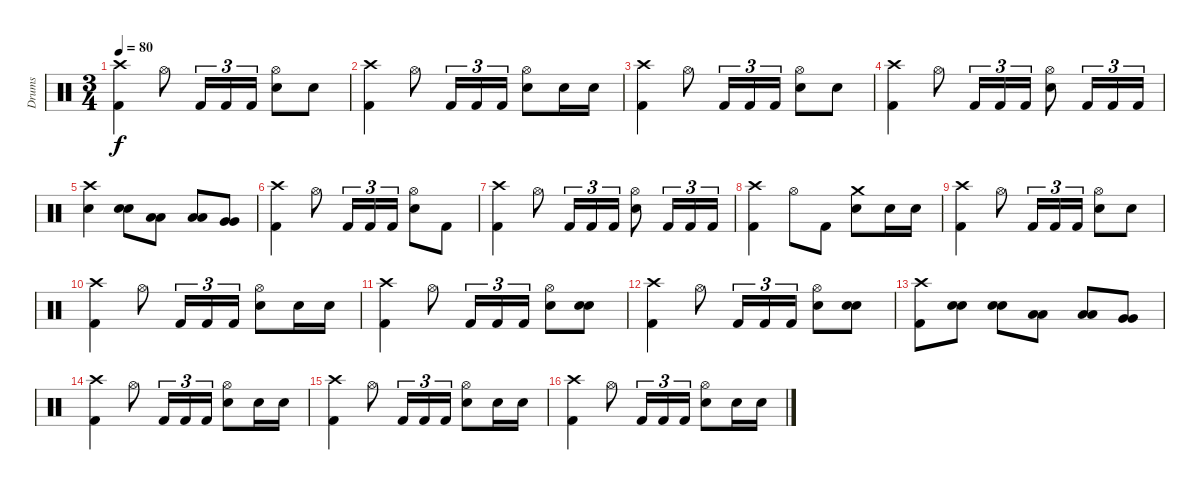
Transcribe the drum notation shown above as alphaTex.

\track ("Drums" "Drums") {instrument percussion}
\staff {score}
\articulation defaults
\ts (3 4)
\tempo 80
\clef neutral
\ks c
("Crash high (hit)" "Kick (hit) 2").4{dy f} "Hi-Hat (open)".8 "Kick (hit) 2".16{tu (3 2)} "Kick (hit) 2".16{tu (3 2)} "Kick (hit) 2".16{tu (3 2)} ("Hi-Hat (open)" "Electric Snare (hit)").8 "Electric Snare (hit)".8 |
("Crash high (hit)" "Kick (hit) 2").4 "Hi-Hat (open)".8 "Kick (hit) 2".16{tu (3 2)} "Kick (hit) 2".16{tu (3 2)} "Kick (hit) 2".16{tu (3 2)} ("Hi-Hat (open)" "Electric Snare (hit)").8 "Electric Snare (hit)".16 "Electric Snare (hit)".16 |
("Crash high (hit)" "Kick (hit) 2").4 "Hi-Hat (open)".8 "Kick (hit) 2".16{tu (3 2)} "Kick (hit) 2".16{tu (3 2)} "Kick (hit) 2".16{tu (3 2)} ("Hi-Hat (open)" "Electric Snare (hit)").8 "Electric Snare (hit)".8 |
("Crash high (hit)" "Kick (hit) 2").4 "Hi-Hat (open)".8 "Kick (hit) 2".16{tu (3 2)} "Kick (hit) 2".16{tu (3 2)} "Kick (hit) 2".16{tu (3 2)} ("Hi-Hat (open)" "Electric Snare (hit)").8 "Kick (hit) 2".16{tu (3 2)} "Kick (hit) 2".16{tu (3 2)} "Kick (hit) 2".16{tu (3 2)} |
("Crash high (hit)" "Electric Snare (hit)").4 ("Electric Snare (hit)" "Electric Snare (hit)").8{bu 60} ("Low Tom (hit)" "Low Tom (hit)").8{bu 60} ("Low Tom (hit)" "Low Tom (hit)").8{bu 60} ("Very Low Tom (hit)" "Very Low Tom (hit)").8{bu 60} |
("Crash high (hit)" "Kick (hit) 2").4 "Hi-Hat (open)".8 "Kick (hit) 2".16{tu (3 2)} "Kick (hit) 2".16{tu (3 2)} "Kick (hit) 2".16{tu (3 2)} ("Hi-Hat (open)" "Electric Snare (hit)").8 "Kick (hit) 2".8 |
("Crash high (hit)" "Kick (hit) 2").4 "Hi-Hat (open)".8 "Kick (hit) 2".16{tu (3 2)} "Kick (hit) 2".16{tu (3 2)} "Kick (hit) 2".16{tu (3 2)} ("Hi-Hat (open)" "Electric Snare (hit)").8 "Kick (hit) 2".16{tu (3 2)} "Kick (hit) 2".16{tu (3 2)} "Kick (hit) 2".16{tu (3 2)} |
("Crash high (hit)" "Kick (hit) 2").4 "Hi-Hat (open)".8 "Kick (hit) 2".8 ("Crash medium (hit)" "Electric Snare (hit)").8 "Electric Snare (hit)".16 "Electric Snare (hit)".16 |
("Crash high (hit)" "Kick (hit) 2").4 "Hi-Hat (open)".8 "Kick (hit) 2".16{tu (3 2)} "Kick (hit) 2".16{tu (3 2)} "Kick (hit) 2".16{tu (3 2)} ("Hi-Hat (open)" "Electric Snare (hit)").8 "Electric Snare (hit)".8 |
("Crash high (hit)" "Kick (hit) 2").4 "Hi-Hat (open)".8 "Kick (hit) 2".16{tu (3 2)} "Kick (hit) 2".16{tu (3 2)} "Kick (hit) 2".16{tu (3 2)} ("Hi-Hat (open)" "Electric Snare (hit)").8 "Electric Snare (hit)".16 "Electric Snare (hit)".16 |
("Crash high (hit)" "Kick (hit) 2").4 "Hi-Hat (open)".8 "Kick (hit) 2".16{tu (3 2)} "Kick (hit) 2".16{tu (3 2)} "Kick (hit) 2".16{tu (3 2)} ("Hi-Hat (open)" "Electric Snare (hit)").8 ("Electric Snare (hit)" "Electric Snare (hit)").8{bu 60} |
("Crash high (hit)" "Kick (hit) 2").4 "Hi-Hat (open)".8 "Kick (hit) 2".16{tu (3 2)} "Kick (hit) 2".16{tu (3 2)} "Kick (hit) 2".16{tu (3 2)} ("Hi-Hat (open)" "Electric Snare (hit)").8 ("Electric Snare (hit)" "Electric Snare (hit)").8{bu 60} |
("Crash high (hit)" "Kick (hit) 2").8 ("Electric Snare (hit)" "Electric Snare (hit)").8{bu 60} ("Electric Snare (hit)" "Electric Snare (hit)").8{bu 60} ("Low Tom (hit)" "Low Tom (hit)").8{bu 60} ("Low Tom (hit)" "Low Tom (hit)").8{bu 60} ("Very Low Tom (hit)" "Very Low Tom (hit)").8{bu 60} |
("Crash high (hit)" "Kick (hit) 2").4 "Hi-Hat (open)".8 "Kick (hit) 2".16{tu (3 2)} "Kick (hit) 2".16{tu (3 2)} "Kick (hit) 2".16{tu (3 2)} ("Hi-Hat (open)" "Electric Snare (hit)").8 "Electric Snare (hit)".16 "Electric Snare (hit)".16 |
("Crash high (hit)" "Kick (hit) 2").4 "Hi-Hat (open)".8 "Kick (hit) 2".16{tu (3 2)} "Kick (hit) 2".16{tu (3 2)} "Kick (hit) 2".16{tu (3 2)} ("Hi-Hat (open)" "Electric Snare (hit)").8 "Electric Snare (hit)".16 "Electric Snare (hit)".16 |
("Crash high (hit)" "Kick (hit) 2").4 "Hi-Hat (open)".8 "Kick (hit) 2".16{tu (3 2)} "Kick (hit) 2".16{tu (3 2)} "Kick (hit) 2".16{tu (3 2)} ("Hi-Hat (open)" "Electric Snare (hit)").8 "Electric Snare (hit)".16 "Electric Snare (hit)".16
